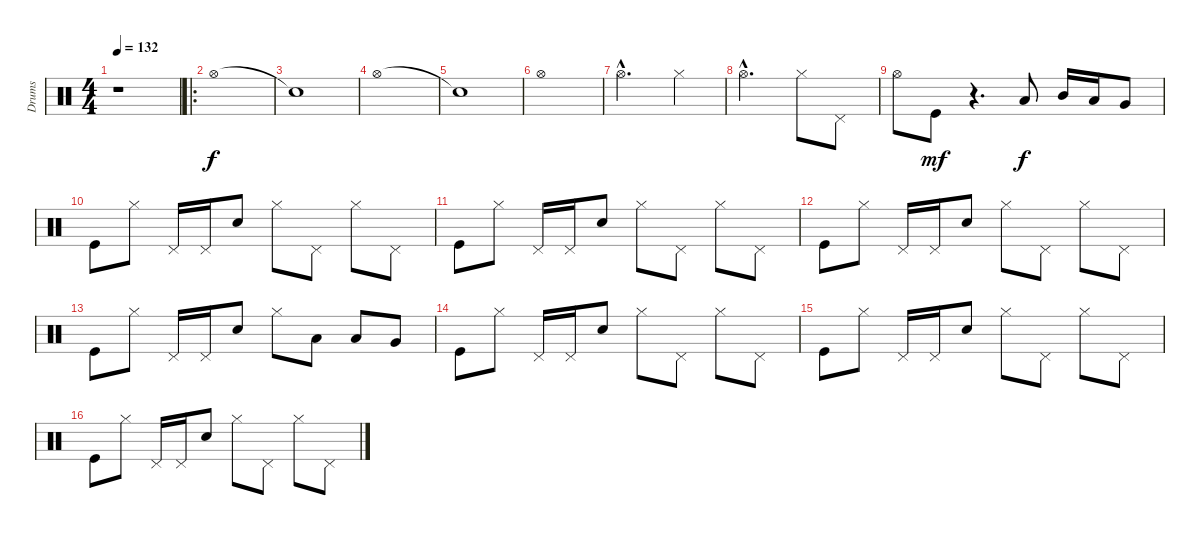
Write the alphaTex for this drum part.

\track ("Drums" "Drums") {instrument percussion}
\staff {score}
\articulation defaults
\ts (4 4)
\tempo 132
\clef neutral
\ks c
r.1{dy f} |
\ro "Hi-Hat (open)".1
|
"Snare (hit)"{t}.1 |
"Hi-Hat (open)".1 |
"Snare (hit)"{t}.1 |
"Hi-Hat (open)".1 |
"Hi-Hat (open)"{hac}.2{d} "Hi-Hat (closed)".4 |
"Hi-Hat (open)"{hac}.2{d} "Hi-Hat (closed)".8 "Pedal Hi-Hat (hit)".8 |
"Hi-Hat (open)".8 "Kick (hit)".8{dy mf} r.4{d} "Low Floor Tom (hit)".8{dy f} "Mid Tom (hit)".16 "Low Tom (hit)".16 "Very Low Tom (hit)".8 |
"Kick (hit)".8 "Hi-Hat (closed)".8 "Pedal Hi-Hat (hit)".16 "Pedal Hi-Hat (hit)".16 "Snare (hit) 2".8 "Hi-Hat (closed)".8 "Pedal Hi-Hat (hit)".8 "Hi-Hat (closed)".8 "Pedal Hi-Hat (hit)".8 |
"Kick (hit)".8 "Hi-Hat (closed)".8 "Pedal Hi-Hat (hit)".16 "Pedal Hi-Hat (hit)".16 "Snare (hit) 2".8 "Hi-Hat (closed)".8 "Pedal Hi-Hat (hit)".8 "Hi-Hat (closed)".8 "Pedal Hi-Hat (hit)".8 |
"Kick (hit)".8 "Hi-Hat (closed)".8 "Pedal Hi-Hat (hit)".16 "Pedal Hi-Hat (hit)".16 "Snare (hit) 2".8 "Hi-Hat (closed)".8 "Pedal Hi-Hat (hit)".8 "Hi-Hat (closed)".8 "Pedal Hi-Hat (hit)".8 |
"Kick (hit)".8 "Hi-Hat (closed)".8 "Pedal Hi-Hat (hit)".16 "Pedal Hi-Hat (hit)".16 "Snare (hit) 2".8 "Hi-Hat (closed)".8 "Low Tom (hit)".8 "Low Tom (hit)".8 "Very Low Tom (hit)".8 |
"Kick (hit)".8 "Hi-Hat (closed)".8 "Pedal Hi-Hat (hit)".16 "Pedal Hi-Hat (hit)".16 "Snare (hit) 2".8 "Hi-Hat (closed)".8 "Pedal Hi-Hat (hit)".8 "Hi-Hat (closed)".8 "Pedal Hi-Hat (hit)".8 |
"Kick (hit)".8 "Hi-Hat (closed)".8 "Pedal Hi-Hat (hit)".16 "Pedal Hi-Hat (hit)".16 "Snare (hit) 2".8 "Hi-Hat (closed)".8 "Pedal Hi-Hat (hit)".8 "Hi-Hat (closed)".8 "Pedal Hi-Hat (hit)".8 |
"Kick (hit)".8 "Hi-Hat (closed)".8 "Pedal Hi-Hat (hit)".16 "Pedal Hi-Hat (hit)".16 "Snare (hit) 2".8 "Hi-Hat (closed)".8 "Pedal Hi-Hat (hit)".8 "Hi-Hat (closed)".8 "Pedal Hi-Hat (hit)".8
